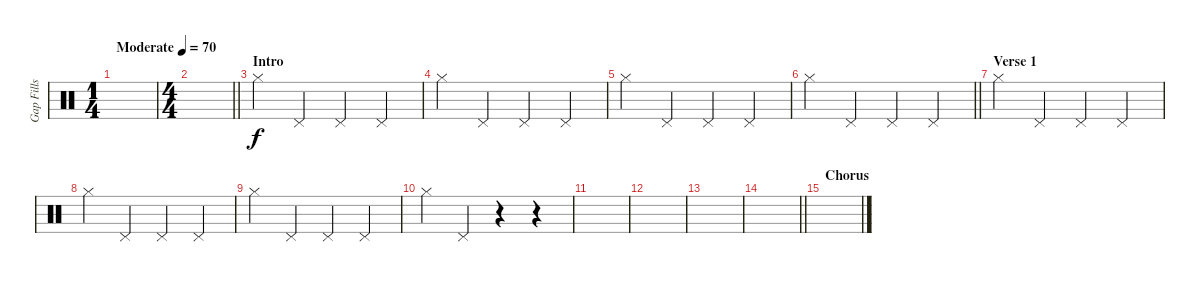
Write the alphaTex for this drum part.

\track ("Gap Fills (Click)" "Gap Fills ") {instrument percussion}
\staff {score}
\articulation defaults
\ts (1 4)
\tempo (70 "Moderate")
\clef neutral
\ks c
|
\ts (4 4)
\barLineRight lightlight
|
\section ("" "Intro")
"Hi-Hat (closed)".4 "Pedal Hi-Hat (hit)".4 "Pedal Hi-Hat (hit)".4 "Pedal Hi-Hat (hit)".4 |
"Hi-Hat (closed)".4 "Pedal Hi-Hat (hit)".4 "Pedal Hi-Hat (hit)".4 "Pedal Hi-Hat (hit)".4 |
"Hi-Hat (closed)".4 "Pedal Hi-Hat (hit)".4 "Pedal Hi-Hat (hit)".4 "Pedal Hi-Hat (hit)".4 |
\barLineRight lightlight "Hi-Hat (closed)".4 "Pedal Hi-Hat (hit)".4 "Pedal Hi-Hat (hit)".4 "Pedal Hi-Hat (hit)".4
|
\section ("" "Verse 1")
"Hi-Hat (closed)".4 "Pedal Hi-Hat (hit)".4 "Pedal Hi-Hat (hit)".4 "Pedal Hi-Hat (hit)".4 |
"Hi-Hat (closed)".4 "Pedal Hi-Hat (hit)".4 "Pedal Hi-Hat (hit)".4 "Pedal Hi-Hat (hit)".4 |
"Hi-Hat (closed)".4 "Pedal Hi-Hat (hit)".4 "Pedal Hi-Hat (hit)".4 "Pedal Hi-Hat (hit)".4 |
"Hi-Hat (closed)".4 "Pedal Hi-Hat (hit)".4 r.4 r.4 |
|
|
|
\barLineRight lightlight
|
\section ("" "Chorus")
